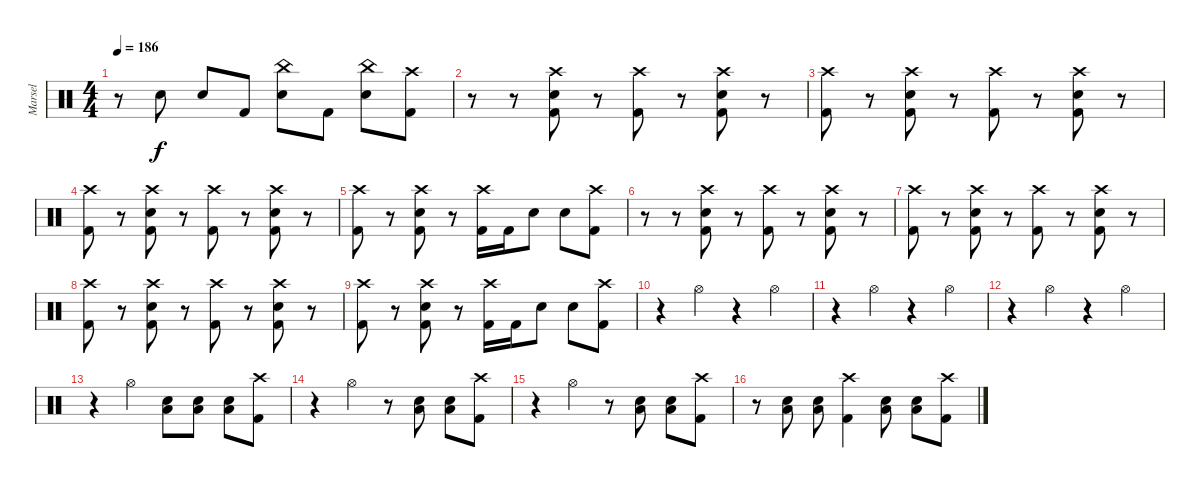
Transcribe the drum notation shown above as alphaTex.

\track ("Marsel" "Marsel") {mute instrument percussion}
\staff {score}
\articulation defaults
\ts (4 4)
\tempo 186
\clef neutral
\ks c
r.8{dy f} "Snare (hit) 2".8 "Snare (hit) 2".8 "Kick (hit) 2".8 ("China (hit)" "Snare (hit) 2").8 "Kick (hit) 2".8 ("China (hit)" "Snare (hit) 2").8 ("Crash high (hit)" "Kick (hit) 2").8 |
r.8 r.8 ("Crash high (hit)" "Snare (hit) 2" "Kick (hit) 2").8 r.8 ("Crash high (hit)" "Kick (hit) 2").8 r.8 ("Crash high (hit)" "Snare (hit) 2" "Kick (hit) 2").8 r.8 |
("Crash high (hit)" "Kick (hit) 2").8 r.8 ("Crash high (hit)" "Snare (hit) 2" "Kick (hit) 2").8 r.8 ("Crash high (hit)" "Kick (hit) 2").8 r.8 ("Crash high (hit)" "Snare (hit) 2" "Kick (hit) 2").8 r.8 |
("Crash high (hit)" "Kick (hit) 2").8 r.8 ("Crash high (hit)" "Snare (hit) 2" "Kick (hit) 2").8 r.8 ("Crash high (hit)" "Kick (hit) 2").8 r.8 ("Crash high (hit)" "Snare (hit) 2" "Kick (hit) 2").8 r.8 |
("Crash high (hit)" "Kick (hit) 2").8 r.8 ("Crash high (hit)" "Snare (hit) 2" "Kick (hit) 2").8 r.8 ("Crash high (hit)" "Kick (hit) 2").16 "Kick (hit) 2".16 "Snare (hit) 2".8 "Snare (hit) 2".8 ("Crash high (hit)" "Kick (hit) 2").8 |
r.8 r.8 ("Crash high (hit)" "Snare (hit) 2" "Kick (hit) 2").8 r.8 ("Crash high (hit)" "Kick (hit) 2").8 r.8 ("Crash high (hit)" "Snare (hit) 2" "Kick (hit) 2").8 r.8 |
("Crash high (hit)" "Kick (hit) 2").8 r.8 ("Crash high (hit)" "Snare (hit) 2" "Kick (hit) 2").8 r.8 ("Crash high (hit)" "Kick (hit) 2").8 r.8 ("Crash high (hit)" "Snare (hit) 2" "Kick (hit) 2").8 r.8 |
("Crash high (hit)" "Kick (hit) 2").8 r.8 ("Crash high (hit)" "Snare (hit) 2" "Kick (hit) 2").8 r.8 ("Crash high (hit)" "Kick (hit) 2").8 r.8 ("Crash high (hit)" "Snare (hit) 2" "Kick (hit) 2").8 r.8 |
("Crash high (hit)" "Kick (hit) 2").8 r.8 ("Crash high (hit)" "Snare (hit) 2" "Kick (hit) 2").8 r.8 ("Crash high (hit)" "Kick (hit) 2").16 "Kick (hit) 2".16 "Snare (hit) 2".8 "Snare (hit) 2".8 ("Crash high (hit)" "Kick (hit) 2").8 |
r.4 "Hi-Hat (open)".4 r.4 "Hi-Hat (open)".4 |
r.4 "Hi-Hat (open)".4 r.4 "Hi-Hat (open)".4 |
r.4 "Hi-Hat (open)".4 r.4 "Hi-Hat (open)".4 |
r.4 "Hi-Hat (open)".4 ("Snare (hit) 2" "Low Floor Tom (hit)").8 ("Snare (hit) 2" "Low Floor Tom (hit)").8 ("Snare (hit) 2" "Low Floor Tom (hit)").8 ("Crash high (hit)" "Kick (hit) 2").8 |
r.4 "Hi-Hat (open)".4 r.8 ("Snare (hit) 2" "Low Floor Tom (hit)").8 ("Snare (hit) 2" "Low Floor Tom (hit)").8 ("Crash high (hit)" "Kick (hit) 2").8 |
r.4 "Hi-Hat (open)".4 r.8 ("Snare (hit) 2" "Low Floor Tom (hit)").8 ("Snare (hit) 2" "Low Floor Tom (hit)").8 ("Crash high (hit)" "Kick (hit) 2").8 |
r.8 ("Snare (hit) 2" "Low Floor Tom (hit)").8 ("Snare (hit) 2" "Low Floor Tom (hit)").8 ("Crash high (hit)" "Kick (hit) 2").4 ("Snare (hit) 2" "Low Floor Tom (hit)").8 ("Snare (hit) 2" "Low Floor Tom (hit)").8 ("Crash high (hit)" "Kick (hit) 2").8
